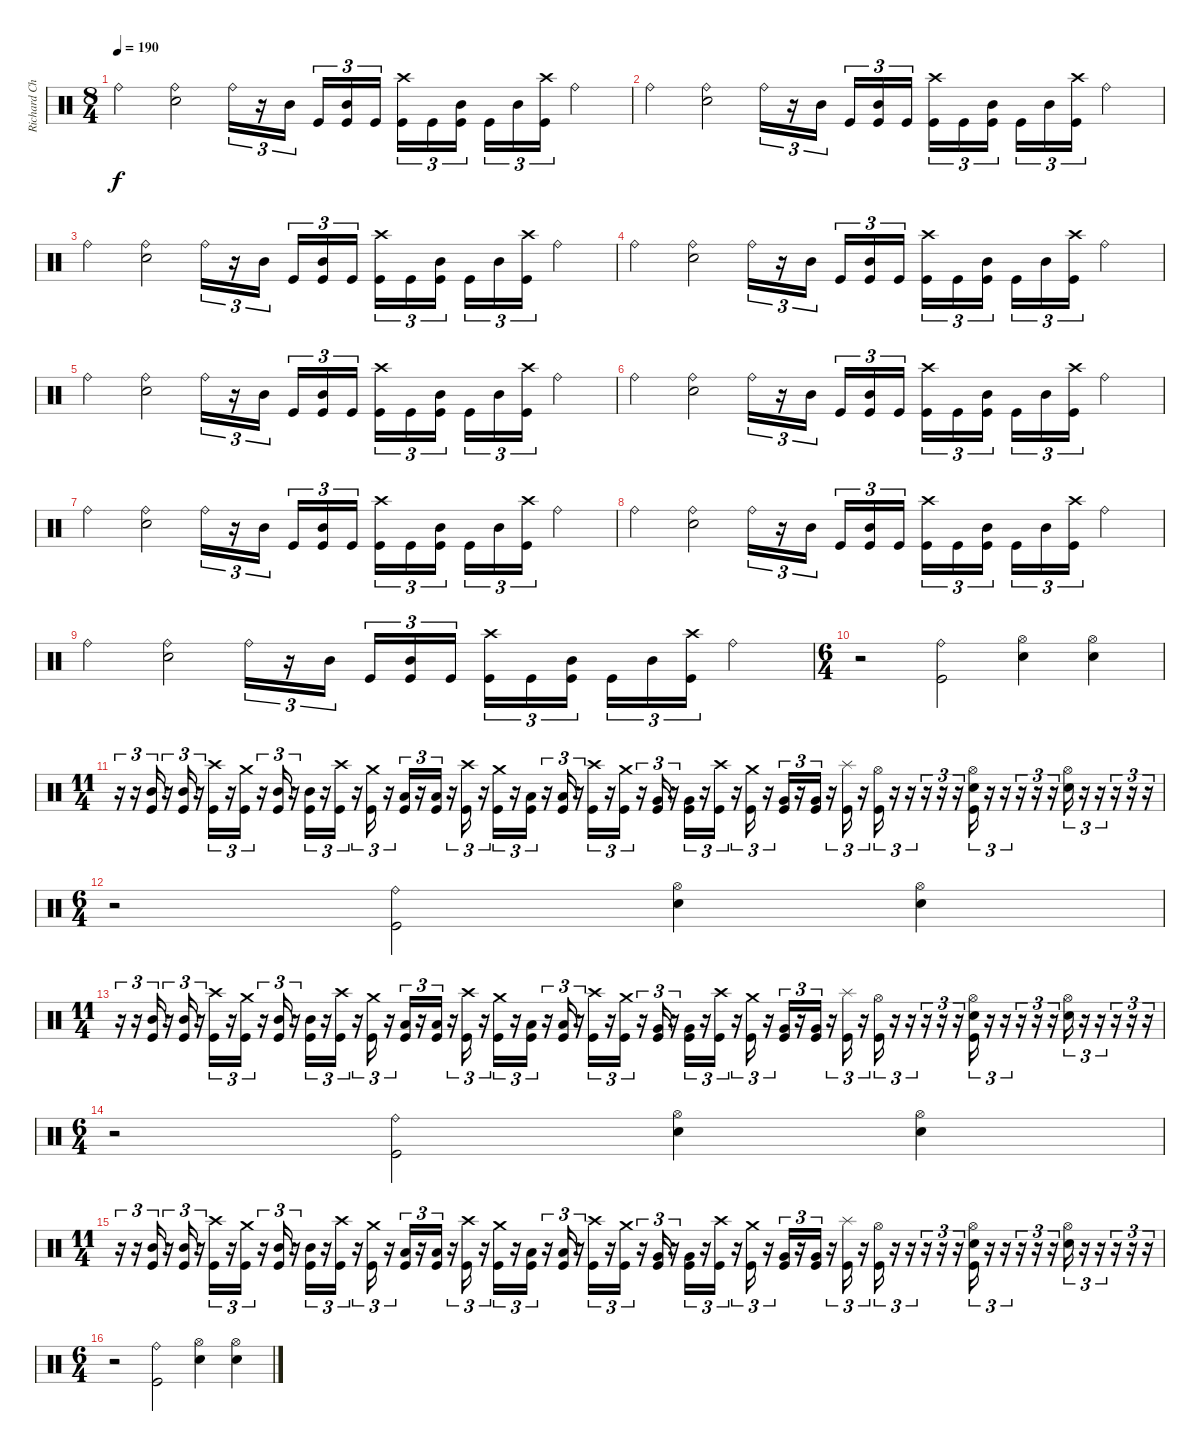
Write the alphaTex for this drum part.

\track ("Richard Christy" "Richard Ch") {instrument percussion}
\staff {score}
\articulation defaults
\ts (8 4)
\tempo 190
\clef neutral
\ks c "Ride (bell)".2{dy f}
("Ride (bell)" "Snare (hit) 2").2 "Ride (bell)".16{tu (3 2)} r.16{tu (3 2)} "Mid Tom (hit)".16{tu (3 2)} "Kick (hit)".16{tu (3 2)} ("Mid Tom (hit)" "Kick (hit)").16{tu (3 2)} "Kick (hit)".16{tu (3 2)} ("Crash high (hit)" "Kick (hit)").16{tu (3 2)} "Kick (hit)".16{tu (3 2)} ("Mid Tom (hit)" "Kick (hit)").16{tu (3 2)} "Kick (hit)".16{tu (3 2)} "Mid Tom (hit)".16{tu (3 2)} ("Crash high (hit)" "Kick (hit)").16{tu (3 2)} "Ride (bell)".2 |
"Ride (bell)".2 ("Ride (bell)" "Snare (hit) 2").2 "Ride (bell)".16{tu (3 2)} r.16{tu (3 2)} "Mid Tom (hit)".16{tu (3 2)} "Kick (hit)".16{tu (3 2)} ("Mid Tom (hit)" "Kick (hit)").16{tu (3 2)} "Kick (hit)".16{tu (3 2)} ("Crash high (hit)" "Kick (hit)").16{tu (3 2)} "Kick (hit)".16{tu (3 2)} ("Mid Tom (hit)" "Kick (hit)").16{tu (3 2)} "Kick (hit)".16{tu (3 2)} "Mid Tom (hit)".16{tu (3 2)} ("Crash high (hit)" "Kick (hit)").16{tu (3 2)} "Ride (bell)".2 |
"Ride (bell)".2 ("Ride (bell)" "Snare (hit) 2").2 "Ride (bell)".16{tu (3 2)} r.16{tu (3 2)} "Mid Tom (hit)".16{tu (3 2)} "Kick (hit)".16{tu (3 2)} ("Mid Tom (hit)" "Kick (hit)").16{tu (3 2)} "Kick (hit)".16{tu (3 2)} ("Crash high (hit)" "Kick (hit)").16{tu (3 2)} "Kick (hit)".16{tu (3 2)} ("Mid Tom (hit)" "Kick (hit)").16{tu (3 2)} "Kick (hit)".16{tu (3 2)} "Mid Tom (hit)".16{tu (3 2)} ("Crash high (hit)" "Kick (hit)").16{tu (3 2)} "Ride (bell)".2 |
"Ride (bell)".2 ("Ride (bell)" "Snare (hit) 2").2 "Ride (bell)".16{tu (3 2)} r.16{tu (3 2)} "Mid Tom (hit)".16{tu (3 2)} "Kick (hit)".16{tu (3 2)} ("Mid Tom (hit)" "Kick (hit)").16{tu (3 2)} "Kick (hit)".16{tu (3 2)} ("Crash high (hit)" "Kick (hit)").16{tu (3 2)} "Kick (hit)".16{tu (3 2)} ("Mid Tom (hit)" "Kick (hit)").16{tu (3 2)} "Kick (hit)".16{tu (3 2)} "Mid Tom (hit)".16{tu (3 2)} ("Crash high (hit)" "Kick (hit)").16{tu (3 2)} "Ride (bell)".2 |
"Ride (bell)".2 ("Ride (bell)" "Snare (hit) 2").2 "Ride (bell)".16{tu (3 2)} r.16{tu (3 2)} "Mid Tom (hit)".16{tu (3 2)} "Kick (hit)".16{tu (3 2)} ("Mid Tom (hit)" "Kick (hit)").16{tu (3 2)} "Kick (hit)".16{tu (3 2)} ("Crash high (hit)" "Kick (hit)").16{tu (3 2)} "Kick (hit)".16{tu (3 2)} ("Mid Tom (hit)" "Kick (hit)").16{tu (3 2)} "Kick (hit)".16{tu (3 2)} "Mid Tom (hit)".16{tu (3 2)} ("Crash high (hit)" "Kick (hit)").16{tu (3 2)} "Ride (bell)".2 |
"Ride (bell)".2 ("Ride (bell)" "Snare (hit) 2").2 "Ride (bell)".16{tu (3 2)} r.16{tu (3 2)} "Mid Tom (hit)".16{tu (3 2)} "Kick (hit)".16{tu (3 2)} ("Mid Tom (hit)" "Kick (hit)").16{tu (3 2)} "Kick (hit)".16{tu (3 2)} ("Crash high (hit)" "Kick (hit)").16{tu (3 2)} "Kick (hit)".16{tu (3 2)} ("Mid Tom (hit)" "Kick (hit)").16{tu (3 2)} "Kick (hit)".16{tu (3 2)} "Mid Tom (hit)".16{tu (3 2)} ("Crash high (hit)" "Kick (hit)").16{tu (3 2)} "Ride (bell)".2 |
"Ride (bell)".2 ("Ride (bell)" "Snare (hit) 2").2 "Ride (bell)".16{tu (3 2)} r.16{tu (3 2)} "Mid Tom (hit)".16{tu (3 2)} "Kick (hit)".16{tu (3 2)} ("Mid Tom (hit)" "Kick (hit)").16{tu (3 2)} "Kick (hit)".16{tu (3 2)} ("Crash high (hit)" "Kick (hit)").16{tu (3 2)} "Kick (hit)".16{tu (3 2)} ("Mid Tom (hit)" "Kick (hit)").16{tu (3 2)} "Kick (hit)".16{tu (3 2)} "Mid Tom (hit)".16{tu (3 2)} ("Crash high (hit)" "Kick (hit)").16{tu (3 2)} "Ride (bell)".2 |
"Ride (bell)".2 ("Ride (bell)" "Snare (hit) 2").2 "Ride (bell)".16{tu (3 2)} r.16{tu (3 2)} "Mid Tom (hit)".16{tu (3 2)} "Kick (hit)".16{tu (3 2)} ("Mid Tom (hit)" "Kick (hit)").16{tu (3 2)} "Kick (hit)".16{tu (3 2)} ("Crash high (hit)" "Kick (hit)").16{tu (3 2)} "Kick (hit)".16{tu (3 2)} ("Mid Tom (hit)" "Kick (hit)").16{tu (3 2)} "Kick (hit)".16{tu (3 2)} "Mid Tom (hit)".16{tu (3 2)} ("Crash high (hit)" "Kick (hit)").16{tu (3 2)} "Ride (bell)".2 |
"Ride (bell)".2 ("Ride (bell)" "Snare (hit) 2").2 "Ride (bell)".16{tu (3 2)} r.16{tu (3 2)} "Mid Tom (hit)".16{tu (3 2)} "Kick (hit)".16{tu (3 2)} ("Mid Tom (hit)" "Kick (hit)").16{tu (3 2)} "Kick (hit)".16{tu (3 2)} ("Crash high (hit)" "Kick (hit)").16{tu (3 2)} "Kick (hit)".16{tu (3 2)} ("Mid Tom (hit)" "Kick (hit)").16{tu (3 2)} "Kick (hit)".16{tu (3 2)} "Mid Tom (hit)".16{tu (3 2)} ("Crash high (hit)" "Kick (hit)").16{tu (3 2)} "Ride (bell)".2 |
\ts (6 4)
r.2 ("Ride (bell)" "Kick (hit)").2 ("Hi-Hat (open)" "Snare (hit) 2").4 ("Hi-Hat (open)" "Snare (hit) 2").4 |
\ts (11 4)
r.16{tu (3 2)} r.16{tu (3 2)} ("Mid Tom (hit)" "Kick (hit)").16{tu (3 2)} r.16{tu (3 2)} ("Mid Tom (hit)" "Kick (hit)").16{tu (3 2)} r.16{tu (3 2)} ("Crash high (hit)" "Kick (hit)").16{tu (3 2)} r.16{tu (3 2)} ("Crash medium (hit)" "Kick (hit)").16{tu (3 2)} r.16{tu (3 2)} ("Mid Tom (hit)" "Kick (hit)").16{tu (3 2)} r.16{tu (3 2)} ("Mid Tom (hit)" "Kick (hit)").16{tu (3 2)} r.16{tu (3 2)} ("Crash high (hit)" "Kick (hit)").16{tu (3 2)} r.16{tu (3 2)} ("Crash medium (hit)" "Kick (hit)").16{tu (3 2)} r.16{tu (3 2)} ("Low Tom (hit)" "Kick (hit)").16{tu (3 2)} r.16{tu (3 2)} ("Low Tom (hit)" "Kick (hit)").16{tu (3 2)} r.16{tu (3 2)} ("Crash high (hit)" "Kick (hit)").16{tu (3 2)} r.16{tu (3 2)} ("Crash medium (hit)" "Kick (hit)").16{tu (3 2)} r.16{tu (3 2)} ("Low Tom (hit)" "Kick (hit)").16{tu (3 2)} r.16{tu (3 2)} ("Low Tom (hit)" "Kick (hit)").16{tu (3 2)} r.16{tu (3 2)} ("Crash high (hit)" "Kick (hit)").16{tu (3 2)} r.16{tu (3 2)} ("Crash medium (hit)" "Kick (hit)").16{tu (3 2)} r.16{tu (3 2)} ("Very Low Tom (hit)" "Kick (hit)").16{tu (3 2)} r.16{tu (3 2)} ("Very Low Tom (hit)" "Kick (hit)").16{tu (3 2)} r.16{tu (3 2)} ("Crash high (hit)" "Kick (hit)").16{tu (3 2)} r.16{tu (3 2)} ("Crash medium (hit)" "Kick (hit)").16{tu (3 2)} r.16{tu (3 2)} ("Very Low Tom (hit)" "Kick (hit)").16{tu (3 2)} r.16{tu (3 2)} ("Very Low Tom (hit)" "Kick (hit)").16{tu (3 2)} r.16{tu (3 2)} ("Splash (hit)" "Kick (hit)").16{tu (3 2)} r.16{tu (3 2)} ("Hi-Hat (open)" "Kick (hit)").16{tu (3 2)} r.16{tu (3 2)} r.16{tu (3 2)} r.16{tu (3 2)} r.16{tu (3 2)} r.16{tu (3 2)} ("Hi-Hat (open)" "Snare (hit) 2" "Kick (hit)").16{tu (3 2)} r.16{tu (3 2)} r.16{tu (3 2)} r.16{tu (3 2)} r.16{tu (3 2)} r.16{tu (3 2)} ("Hi-Hat (open)" "Snare (hit) 2").16{tu (3 2)} r.16{tu (3 2)} r.16{tu (3 2)} r.16{tu (3 2)} r.16{tu (3 2)} r.16{tu (3 2)} |
\ts (6 4)
r.2 ("Ride (bell)" "Kick (hit)").2 ("Hi-Hat (open)" "Snare (hit) 2").4 ("Hi-Hat (open)" "Snare (hit) 2").4 |
\ts (11 4)
r.16{tu (3 2)} r.16{tu (3 2)} ("Mid Tom (hit)" "Kick (hit)").16{tu (3 2)} r.16{tu (3 2)} ("Mid Tom (hit)" "Kick (hit)").16{tu (3 2)} r.16{tu (3 2)} ("Crash high (hit)" "Kick (hit)").16{tu (3 2)} r.16{tu (3 2)} ("Crash medium (hit)" "Kick (hit)").16{tu (3 2)} r.16{tu (3 2)} ("Mid Tom (hit)" "Kick (hit)").16{tu (3 2)} r.16{tu (3 2)} ("Mid Tom (hit)" "Kick (hit)").16{tu (3 2)} r.16{tu (3 2)} ("Crash high (hit)" "Kick (hit)").16{tu (3 2)} r.16{tu (3 2)} ("Crash medium (hit)" "Kick (hit)").16{tu (3 2)} r.16{tu (3 2)} ("Low Tom (hit)" "Kick (hit)").16{tu (3 2)} r.16{tu (3 2)} ("Low Tom (hit)" "Kick (hit)").16{tu (3 2)} r.16{tu (3 2)} ("Crash high (hit)" "Kick (hit)").16{tu (3 2)} r.16{tu (3 2)} ("Crash medium (hit)" "Kick (hit)").16{tu (3 2)} r.16{tu (3 2)} ("Low Tom (hit)" "Kick (hit)").16{tu (3 2)} r.16{tu (3 2)} ("Low Tom (hit)" "Kick (hit)").16{tu (3 2)} r.16{tu (3 2)} ("Crash high (hit)" "Kick (hit)").16{tu (3 2)} r.16{tu (3 2)} ("Crash medium (hit)" "Kick (hit)").16{tu (3 2)} r.16{tu (3 2)} ("Very Low Tom (hit)" "Kick (hit)").16{tu (3 2)} r.16{tu (3 2)} ("Very Low Tom (hit)" "Kick (hit)").16{tu (3 2)} r.16{tu (3 2)} ("Crash high (hit)" "Kick (hit)").16{tu (3 2)} r.16{tu (3 2)} ("Crash medium (hit)" "Kick (hit)").16{tu (3 2)} r.16{tu (3 2)} ("Very Low Tom (hit)" "Kick (hit)").16{tu (3 2)} r.16{tu (3 2)} ("Very Low Tom (hit)" "Kick (hit)").16{tu (3 2)} r.16{tu (3 2)} ("Splash (hit)" "Kick (hit)").16{tu (3 2)} r.16{tu (3 2)} ("Hi-Hat (open)" "Kick (hit)").16{tu (3 2)} r.16{tu (3 2)} r.16{tu (3 2)} r.16{tu (3 2)} r.16{tu (3 2)} r.16{tu (3 2)} ("Hi-Hat (open)" "Snare (hit) 2" "Kick (hit)").16{tu (3 2)} r.16{tu (3 2)} r.16{tu (3 2)} r.16{tu (3 2)} r.16{tu (3 2)} r.16{tu (3 2)} ("Hi-Hat (open)" "Snare (hit) 2").16{tu (3 2)} r.16{tu (3 2)} r.16{tu (3 2)} r.16{tu (3 2)} r.16{tu (3 2)} r.16{tu (3 2)} |
\ts (6 4)
r.2 ("Ride (bell)" "Kick (hit)").2 ("Hi-Hat (open)" "Snare (hit) 2").4 ("Hi-Hat (open)" "Snare (hit) 2").4 |
\ts (11 4)
r.16{tu (3 2)} r.16{tu (3 2)} ("Mid Tom (hit)" "Kick (hit)").16{tu (3 2)} r.16{tu (3 2)} ("Mid Tom (hit)" "Kick (hit)").16{tu (3 2)} r.16{tu (3 2)} ("Crash high (hit)" "Kick (hit)").16{tu (3 2)} r.16{tu (3 2)} ("Crash medium (hit)" "Kick (hit)").16{tu (3 2)} r.16{tu (3 2)} ("Mid Tom (hit)" "Kick (hit)").16{tu (3 2)} r.16{tu (3 2)} ("Mid Tom (hit)" "Kick (hit)").16{tu (3 2)} r.16{tu (3 2)} ("Crash high (hit)" "Kick (hit)").16{tu (3 2)} r.16{tu (3 2)} ("Crash medium (hit)" "Kick (hit)").16{tu (3 2)} r.16{tu (3 2)} ("Low Tom (hit)" "Kick (hit)").16{tu (3 2)} r.16{tu (3 2)} ("Low Tom (hit)" "Kick (hit)").16{tu (3 2)} r.16{tu (3 2)} ("Crash high (hit)" "Kick (hit)").16{tu (3 2)} r.16{tu (3 2)} ("Crash medium (hit)" "Kick (hit)").16{tu (3 2)} r.16{tu (3 2)} ("Low Tom (hit)" "Kick (hit)").16{tu (3 2)} r.16{tu (3 2)} ("Low Tom (hit)" "Kick (hit)").16{tu (3 2)} r.16{tu (3 2)} ("Crash high (hit)" "Kick (hit)").16{tu (3 2)} r.16{tu (3 2)} ("Crash medium (hit)" "Kick (hit)").16{tu (3 2)} r.16{tu (3 2)} ("Very Low Tom (hit)" "Kick (hit)").16{tu (3 2)} r.16{tu (3 2)} ("Very Low Tom (hit)" "Kick (hit)").16{tu (3 2)} r.16{tu (3 2)} ("Crash high (hit)" "Kick (hit)").16{tu (3 2)} r.16{tu (3 2)} ("Crash medium (hit)" "Kick (hit)").16{tu (3 2)} r.16{tu (3 2)} ("Very Low Tom (hit)" "Kick (hit)").16{tu (3 2)} r.16{tu (3 2)} ("Very Low Tom (hit)" "Kick (hit)").16{tu (3 2)} r.16{tu (3 2)} ("Splash (hit)" "Kick (hit)").16{tu (3 2)} r.16{tu (3 2)} ("Hi-Hat (open)" "Kick (hit)").16{tu (3 2)} r.16{tu (3 2)} r.16{tu (3 2)} r.16{tu (3 2)} r.16{tu (3 2)} r.16{tu (3 2)} ("Hi-Hat (open)" "Snare (hit) 2" "Kick (hit)").16{tu (3 2)} r.16{tu (3 2)} r.16{tu (3 2)} r.16{tu (3 2)} r.16{tu (3 2)} r.16{tu (3 2)} ("Hi-Hat (open)" "Snare (hit) 2").16{tu (3 2)} r.16{tu (3 2)} r.16{tu (3 2)} r.16{tu (3 2)} r.16{tu (3 2)} r.16{tu (3 2)} |
\ts (6 4)
r.2 ("Ride (bell)" "Kick (hit)").2 ("Hi-Hat (open)" "Snare (hit) 2").4 ("Hi-Hat (open)" "Snare (hit) 2").4
